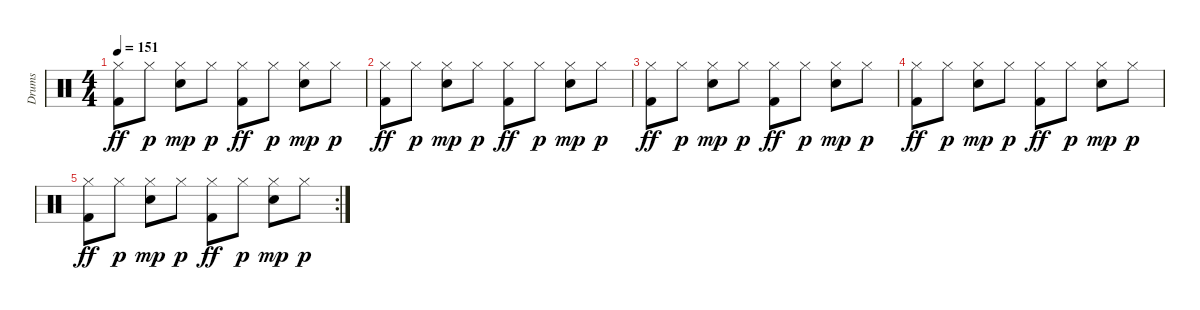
\track ("Drums" "Drums") {instrument percussion}
\staff {score}
\articulation defaults
\ts (4 4)
\tempo 151
\clef neutral
\ks c
("Hi-Hat (closed)" "Kick (hit) 2").8{dy ff} "Hi-Hat (closed)".8{dy p} ("Hi-Hat (closed)" "Snare (hit) 2").8{dy mp} "Hi-Hat (closed)".8{dy p} ("Hi-Hat (closed)" "Kick (hit) 2").8{dy ff} "Hi-Hat (closed)".8{dy p} ("Hi-Hat (closed)" "Snare (hit) 2").8{dy mp} "Hi-Hat (closed)".8{dy p} |
("Hi-Hat (closed)" "Kick (hit) 2").8{dy ff} "Hi-Hat (closed)".8{dy p} ("Hi-Hat (closed)" "Snare (hit) 2").8{dy mp} "Hi-Hat (closed)".8{dy p} ("Hi-Hat (closed)" "Kick (hit) 2").8{dy ff} "Hi-Hat (closed)".8{dy p} ("Hi-Hat (closed)" "Snare (hit) 2").8{dy mp} "Hi-Hat (closed)".8{dy p} |
("Hi-Hat (closed)" "Kick (hit) 2").8{dy ff} "Hi-Hat (closed)".8{dy p} ("Hi-Hat (closed)" "Snare (hit) 2").8{dy mp} "Hi-Hat (closed)".8{dy p} ("Hi-Hat (closed)" "Kick (hit) 2").8{dy ff} "Hi-Hat (closed)".8{dy p} ("Hi-Hat (closed)" "Snare (hit) 2").8{dy mp} "Hi-Hat (closed)".8{dy p} |
("Hi-Hat (closed)" "Kick (hit) 2").8{dy ff} "Hi-Hat (closed)".8{dy p} ("Hi-Hat (closed)" "Snare (hit) 2").8{dy mp} "Hi-Hat (closed)".8{dy p} ("Hi-Hat (closed)" "Kick (hit) 2").8{dy ff} "Hi-Hat (closed)".8{dy p} ("Hi-Hat (closed)" "Snare (hit) 2").8{dy mp} "Hi-Hat (closed)".8{dy p} |
\rc 2
("Hi-Hat (closed)" "Kick (hit) 2").8{dy ff} "Hi-Hat (closed)".8{dy p} ("Hi-Hat (closed)" "Snare (hit) 2").8{dy mp} "Hi-Hat (closed)".8{dy p} ("Hi-Hat (closed)" "Kick (hit) 2").8{dy ff} "Hi-Hat (closed)".8{dy p} ("Hi-Hat (closed)" "Snare (hit) 2").8{dy mp} "Hi-Hat (closed)".8{dy p}
